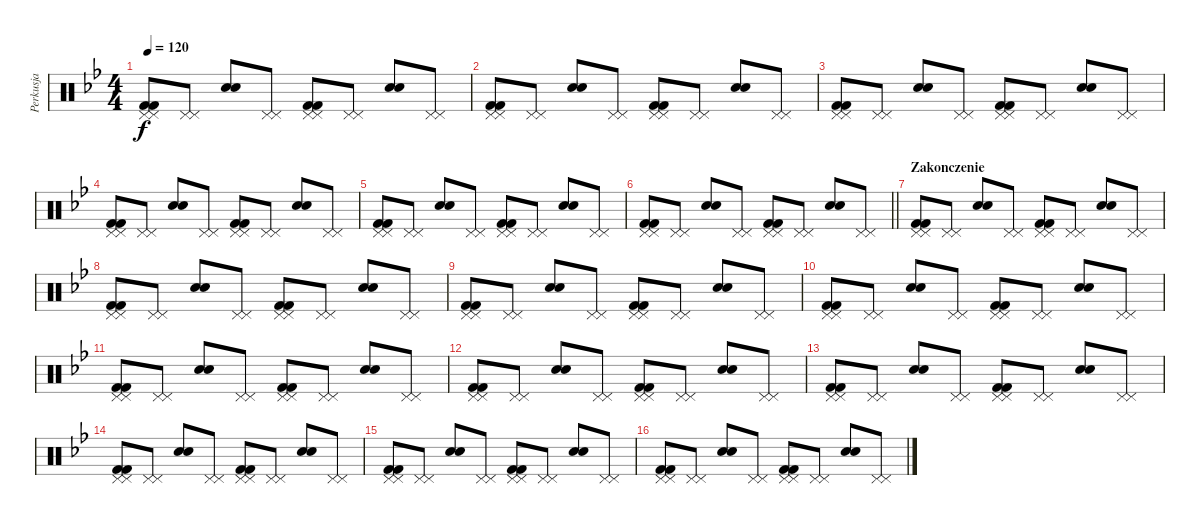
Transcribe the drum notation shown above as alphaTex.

\track ("Perkusja" "Perkusja") {instrument percussion}
\staff {score}
\articulation defaults
\ts (4 4)
\tempo 120
\clef neutral
\ks bb
("Pedal Hi-Hat (hit)" "Pedal Hi-Hat (hit)" "Kick (hit) 2" "Kick (hit) 2").8{dy f} ("Pedal Hi-Hat (hit)" "Pedal Hi-Hat (hit)").8 ("Snare (hit) 2" "Snare (hit) 2").8 ("Pedal Hi-Hat (hit)" "Pedal Hi-Hat (hit)").8 ("Pedal Hi-Hat (hit)" "Pedal Hi-Hat (hit)" "Kick (hit) 2" "Kick (hit) 2").8 ("Pedal Hi-Hat (hit)" "Pedal Hi-Hat (hit)").8 ("Snare (hit) 2" "Snare (hit) 2").8 ("Pedal Hi-Hat (hit)" "Pedal Hi-Hat (hit)").8 |
("Pedal Hi-Hat (hit)" "Pedal Hi-Hat (hit)" "Kick (hit) 2" "Kick (hit) 2").8 ("Pedal Hi-Hat (hit)" "Pedal Hi-Hat (hit)").8 ("Snare (hit) 2" "Snare (hit) 2").8 ("Pedal Hi-Hat (hit)" "Pedal Hi-Hat (hit)").8 ("Pedal Hi-Hat (hit)" "Pedal Hi-Hat (hit)" "Kick (hit) 2" "Kick (hit) 2").8 ("Pedal Hi-Hat (hit)" "Pedal Hi-Hat (hit)").8 ("Snare (hit) 2" "Snare (hit) 2").8 ("Pedal Hi-Hat (hit)" "Pedal Hi-Hat (hit)").8 |
("Pedal Hi-Hat (hit)" "Pedal Hi-Hat (hit)" "Kick (hit) 2" "Kick (hit) 2").8 ("Pedal Hi-Hat (hit)" "Pedal Hi-Hat (hit)").8 ("Snare (hit) 2" "Snare (hit) 2").8 ("Pedal Hi-Hat (hit)" "Pedal Hi-Hat (hit)").8 ("Pedal Hi-Hat (hit)" "Pedal Hi-Hat (hit)" "Kick (hit) 2" "Kick (hit) 2").8 ("Pedal Hi-Hat (hit)" "Pedal Hi-Hat (hit)").8 ("Snare (hit) 2" "Snare (hit) 2").8 ("Pedal Hi-Hat (hit)" "Pedal Hi-Hat (hit)").8 |
("Pedal Hi-Hat (hit)" "Pedal Hi-Hat (hit)" "Kick (hit) 2" "Kick (hit) 2").8 ("Pedal Hi-Hat (hit)" "Pedal Hi-Hat (hit)").8 ("Snare (hit) 2" "Snare (hit) 2").8 ("Pedal Hi-Hat (hit)" "Pedal Hi-Hat (hit)").8 ("Pedal Hi-Hat (hit)" "Pedal Hi-Hat (hit)" "Kick (hit) 2" "Kick (hit) 2").8 ("Pedal Hi-Hat (hit)" "Pedal Hi-Hat (hit)").8 ("Snare (hit) 2" "Snare (hit) 2").8 ("Pedal Hi-Hat (hit)" "Pedal Hi-Hat (hit)").8 |
("Pedal Hi-Hat (hit)" "Pedal Hi-Hat (hit)" "Kick (hit) 2" "Kick (hit) 2").8 ("Pedal Hi-Hat (hit)" "Pedal Hi-Hat (hit)").8 ("Snare (hit) 2" "Snare (hit) 2").8 ("Pedal Hi-Hat (hit)" "Pedal Hi-Hat (hit)").8 ("Pedal Hi-Hat (hit)" "Pedal Hi-Hat (hit)" "Kick (hit) 2" "Kick (hit) 2").8 ("Pedal Hi-Hat (hit)" "Pedal Hi-Hat (hit)").8 ("Snare (hit) 2" "Snare (hit) 2").8 ("Pedal Hi-Hat (hit)" "Pedal Hi-Hat (hit)").8 |
\barLineRight lightlight
("Pedal Hi-Hat (hit)" "Pedal Hi-Hat (hit)" "Kick (hit) 2" "Kick (hit) 2").8 ("Pedal Hi-Hat (hit)" "Pedal Hi-Hat (hit)").8 ("Snare (hit) 2" "Snare (hit) 2").8 ("Pedal Hi-Hat (hit)" "Pedal Hi-Hat (hit)").8 ("Pedal Hi-Hat (hit)" "Pedal Hi-Hat (hit)" "Kick (hit) 2" "Kick (hit) 2").8 ("Pedal Hi-Hat (hit)" "Pedal Hi-Hat (hit)").8 ("Snare (hit) 2" "Snare (hit) 2").8 ("Pedal Hi-Hat (hit)" "Pedal Hi-Hat (hit)").8 |
\section ("" "Zakonczenie")
("Pedal Hi-Hat (hit)" "Pedal Hi-Hat (hit)" "Kick (hit) 2" "Kick (hit) 2").8 ("Pedal Hi-Hat (hit)" "Pedal Hi-Hat (hit)").8 ("Snare (hit) 2" "Snare (hit) 2").8 ("Pedal Hi-Hat (hit)" "Pedal Hi-Hat (hit)").8 ("Pedal Hi-Hat (hit)" "Pedal Hi-Hat (hit)" "Kick (hit) 2" "Kick (hit) 2").8 ("Pedal Hi-Hat (hit)" "Pedal Hi-Hat (hit)").8 ("Snare (hit) 2" "Snare (hit) 2").8 ("Pedal Hi-Hat (hit)" "Pedal Hi-Hat (hit)").8 |
("Pedal Hi-Hat (hit)" "Pedal Hi-Hat (hit)" "Kick (hit) 2" "Kick (hit) 2").8 ("Pedal Hi-Hat (hit)" "Pedal Hi-Hat (hit)").8 ("Snare (hit) 2" "Snare (hit) 2").8 ("Pedal Hi-Hat (hit)" "Pedal Hi-Hat (hit)").8 ("Pedal Hi-Hat (hit)" "Pedal Hi-Hat (hit)" "Kick (hit) 2" "Kick (hit) 2").8 ("Pedal Hi-Hat (hit)" "Pedal Hi-Hat (hit)").8 ("Snare (hit) 2" "Snare (hit) 2").8 ("Pedal Hi-Hat (hit)" "Pedal Hi-Hat (hit)").8 |
("Pedal Hi-Hat (hit)" "Pedal Hi-Hat (hit)" "Kick (hit) 2" "Kick (hit) 2").8 ("Pedal Hi-Hat (hit)" "Pedal Hi-Hat (hit)").8 ("Snare (hit) 2" "Snare (hit) 2").8 ("Pedal Hi-Hat (hit)" "Pedal Hi-Hat (hit)").8 ("Pedal Hi-Hat (hit)" "Pedal Hi-Hat (hit)" "Kick (hit) 2" "Kick (hit) 2").8 ("Pedal Hi-Hat (hit)" "Pedal Hi-Hat (hit)").8 ("Snare (hit) 2" "Snare (hit) 2").8 ("Pedal Hi-Hat (hit)" "Pedal Hi-Hat (hit)").8 |
("Pedal Hi-Hat (hit)" "Pedal Hi-Hat (hit)" "Kick (hit) 2" "Kick (hit) 2").8 ("Pedal Hi-Hat (hit)" "Pedal Hi-Hat (hit)").8 ("Snare (hit) 2" "Snare (hit) 2").8 ("Pedal Hi-Hat (hit)" "Pedal Hi-Hat (hit)").8 ("Pedal Hi-Hat (hit)" "Pedal Hi-Hat (hit)" "Kick (hit) 2" "Kick (hit) 2").8 ("Pedal Hi-Hat (hit)" "Pedal Hi-Hat (hit)").8 ("Snare (hit) 2" "Snare (hit) 2").8 ("Pedal Hi-Hat (hit)" "Pedal Hi-Hat (hit)").8 |
("Pedal Hi-Hat (hit)" "Pedal Hi-Hat (hit)" "Kick (hit) 2" "Kick (hit) 2").8 ("Pedal Hi-Hat (hit)" "Pedal Hi-Hat (hit)").8 ("Snare (hit) 2" "Snare (hit) 2").8 ("Pedal Hi-Hat (hit)" "Pedal Hi-Hat (hit)").8 ("Pedal Hi-Hat (hit)" "Pedal Hi-Hat (hit)" "Kick (hit) 2" "Kick (hit) 2").8 ("Pedal Hi-Hat (hit)" "Pedal Hi-Hat (hit)").8 ("Snare (hit) 2" "Snare (hit) 2").8 ("Pedal Hi-Hat (hit)" "Pedal Hi-Hat (hit)").8 |
("Pedal Hi-Hat (hit)" "Pedal Hi-Hat (hit)" "Kick (hit) 2" "Kick (hit) 2").8 ("Pedal Hi-Hat (hit)" "Pedal Hi-Hat (hit)").8 ("Snare (hit) 2" "Snare (hit) 2").8 ("Pedal Hi-Hat (hit)" "Pedal Hi-Hat (hit)").8 ("Pedal Hi-Hat (hit)" "Pedal Hi-Hat (hit)" "Kick (hit) 2" "Kick (hit) 2").8 ("Pedal Hi-Hat (hit)" "Pedal Hi-Hat (hit)").8 ("Snare (hit) 2" "Snare (hit) 2").8 ("Pedal Hi-Hat (hit)" "Pedal Hi-Hat (hit)").8 |
("Pedal Hi-Hat (hit)" "Pedal Hi-Hat (hit)" "Kick (hit) 2" "Kick (hit) 2").8 ("Pedal Hi-Hat (hit)" "Pedal Hi-Hat (hit)").8 ("Snare (hit) 2" "Snare (hit) 2").8 ("Pedal Hi-Hat (hit)" "Pedal Hi-Hat (hit)").8 ("Pedal Hi-Hat (hit)" "Pedal Hi-Hat (hit)" "Kick (hit) 2" "Kick (hit) 2").8 ("Pedal Hi-Hat (hit)" "Pedal Hi-Hat (hit)").8 ("Snare (hit) 2" "Snare (hit) 2").8 ("Pedal Hi-Hat (hit)" "Pedal Hi-Hat (hit)").8 |
("Pedal Hi-Hat (hit)" "Pedal Hi-Hat (hit)" "Kick (hit) 2" "Kick (hit) 2").8 ("Pedal Hi-Hat (hit)" "Pedal Hi-Hat (hit)").8 ("Snare (hit) 2" "Snare (hit) 2").8 ("Pedal Hi-Hat (hit)" "Pedal Hi-Hat (hit)").8 ("Pedal Hi-Hat (hit)" "Pedal Hi-Hat (hit)" "Kick (hit) 2" "Kick (hit) 2").8 ("Pedal Hi-Hat (hit)" "Pedal Hi-Hat (hit)").8 ("Snare (hit) 2" "Snare (hit) 2").8 ("Pedal Hi-Hat (hit)" "Pedal Hi-Hat (hit)").8 |
("Pedal Hi-Hat (hit)" "Pedal Hi-Hat (hit)" "Kick (hit) 2" "Kick (hit) 2").8 ("Pedal Hi-Hat (hit)" "Pedal Hi-Hat (hit)").8 ("Snare (hit) 2" "Snare (hit) 2").8 ("Pedal Hi-Hat (hit)" "Pedal Hi-Hat (hit)").8 ("Pedal Hi-Hat (hit)" "Pedal Hi-Hat (hit)" "Kick (hit) 2" "Kick (hit) 2").8 ("Pedal Hi-Hat (hit)" "Pedal Hi-Hat (hit)").8 ("Snare (hit) 2" "Snare (hit) 2").8 ("Pedal Hi-Hat (hit)" "Pedal Hi-Hat (hit)").8 |
("Pedal Hi-Hat (hit)" "Pedal Hi-Hat (hit)" "Kick (hit) 2" "Kick (hit) 2").8 ("Pedal Hi-Hat (hit)" "Pedal Hi-Hat (hit)").8 ("Snare (hit) 2" "Snare (hit) 2").8 ("Pedal Hi-Hat (hit)" "Pedal Hi-Hat (hit)").8 ("Pedal Hi-Hat (hit)" "Pedal Hi-Hat (hit)" "Kick (hit) 2" "Kick (hit) 2").8 ("Pedal Hi-Hat (hit)" "Pedal Hi-Hat (hit)").8 ("Snare (hit) 2" "Snare (hit) 2").8 ("Pedal Hi-Hat (hit)" "Pedal Hi-Hat (hit)").8
